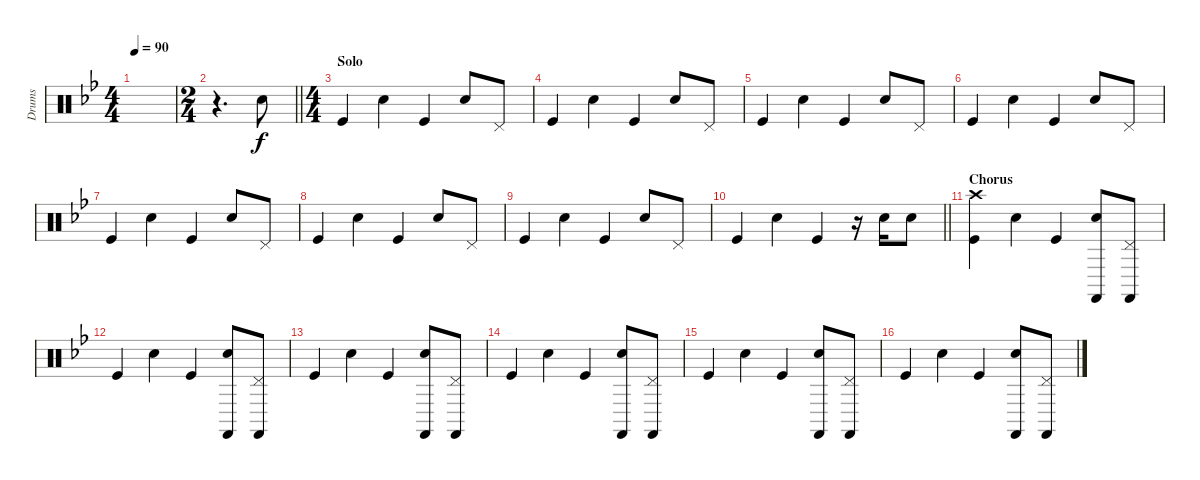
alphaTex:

\track ("Drums" "Drums") {instrument percussion}
\staff {score}
\articulation defaults
\ts (4 4)
\tempo 90
\clef neutral
\ks bb
|
\ts (2 4)
\barLineRight lightlight
r.4{d} "Electric Snare (hit)".8 |
\ts (4 4)
\section ("" "Solo")
"Kick (hit)".4 "Electric Snare (hit)".4 "Kick (hit)".4 "Electric Snare (hit)".8 "Pedal Hi-Hat (hit)".8 |
"Kick (hit)".4 "Electric Snare (hit)".4 "Kick (hit)".4 "Electric Snare (hit)".8 "Pedal Hi-Hat (hit)".8 |
"Kick (hit)".4 "Electric Snare (hit)".4 "Kick (hit)".4 "Electric Snare (hit)".8 "Pedal Hi-Hat (hit)".8 |
"Kick (hit)".4 "Electric Snare (hit)".4 "Kick (hit)".4 "Electric Snare (hit)".8 "Pedal Hi-Hat (hit)".8 |
"Kick (hit)".4 "Electric Snare (hit)".4 "Kick (hit)".4 "Electric Snare (hit)".8 "Pedal Hi-Hat (hit)".8 |
"Kick (hit)".4 "Electric Snare (hit)".4 "Kick (hit)".4 "Electric Snare (hit)".8 "Pedal Hi-Hat (hit)".8 |
"Kick (hit)".4 "Electric Snare (hit)".4 "Kick (hit)".4 "Electric Snare (hit)".8 "Pedal Hi-Hat (hit)".8 |
\barLineRight lightlight "Kick (hit)".4 "Electric Snare (hit)".4 "Kick (hit)".4
r.16 "Electric Snare (hit)".16 "Electric Snare (hit)".8 |
\section ("" "Chorus")
("Kick (hit)" "Crash high (hit)").4 "Electric Snare (hit)".4 "Kick (hit)".4 ("Electric Snare (hit)" "Castanets (hit)").8 ("Castanets (hit)" "Pedal Hi-Hat (hit)").8 |
"Kick (hit)".4 "Electric Snare (hit)".4 "Kick (hit)".4 ("Electric Snare (hit)" "Castanets (hit)").8 ("Castanets (hit)" "Pedal Hi-Hat (hit)").8 |
"Kick (hit)".4 "Electric Snare (hit)".4 "Kick (hit)".4 ("Electric Snare (hit)" "Castanets (hit)").8 ("Castanets (hit)" "Pedal Hi-Hat (hit)").8 |
"Kick (hit)".4 "Electric Snare (hit)".4 "Kick (hit)".4 ("Electric Snare (hit)" "Castanets (hit)").8 ("Castanets (hit)" "Pedal Hi-Hat (hit)").8 |
"Kick (hit)".4 "Electric Snare (hit)".4 "Kick (hit)".4 ("Electric Snare (hit)" "Castanets (hit)").8 ("Castanets (hit)" "Pedal Hi-Hat (hit)").8 |
"Kick (hit)".4 "Electric Snare (hit)".4 "Kick (hit)".4 ("Electric Snare (hit)" "Castanets (hit)").8 ("Castanets (hit)" "Pedal Hi-Hat (hit)").8
